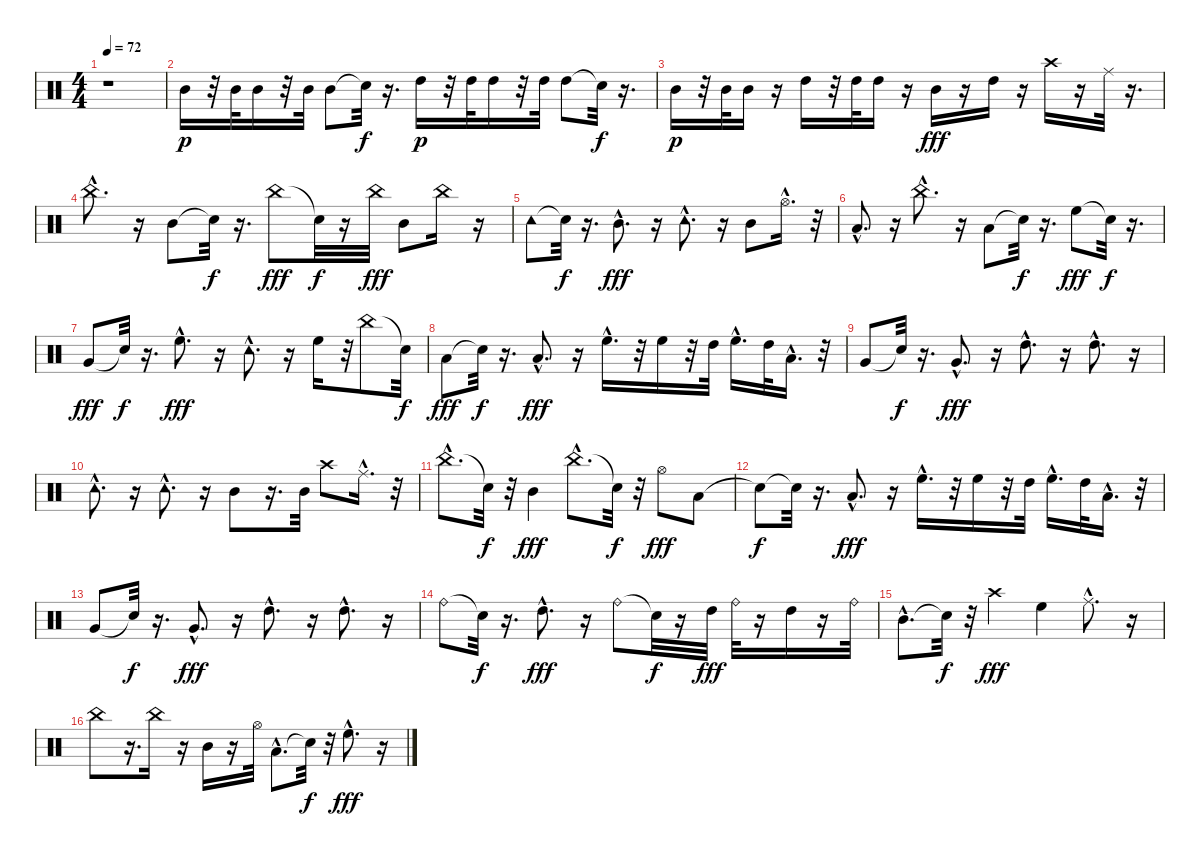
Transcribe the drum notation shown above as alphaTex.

\track "" {instrument percussion}
\staff {score}
\articulation defaults
\ts (4 4)
\tempo 72
\clef neutral
\ks c
r.1{dy p} |
"Mid Tom (hit)".16 r.32 "Mid Tom (hit)".32 "Mid Tom (hit)".16 r.32 "Mid Tom (hit)".32 "Mid Tom (hit)".8 "Snare (hit)"{t}.32{dy f} r.16{d} "High Tom (hit)".16{dy p} r.32 "High Tom (hit)".32 "High Tom (hit)".16 r.32 "High Tom (hit)".32 "High Tom (hit)".8 "Snare (hit)"{t}.32{dy f} r.16{d} |
"Mid Tom (hit)".16{dy p} r.32 "Mid Tom (hit)".32 "Mid Tom (hit)".16 r.16 "High Tom (hit)".16 r.32 "High Tom (hit)".32 "High Tom (hit)".16 r.16 "Mid Tom (hit)".16{dy fff} r.16 "High Tom (hit)".16 r.16 "Crash high (hit)".16 r.16 "Ride (middle)".32 r.16{d} |
"China (hit)"{hac}.8{d} r.16 "Mid Tom (hit)".8 "Snare (hit)"{t}.32{dy f} r.16{d} "China (hit)".8{dy fff} "Snare (hit)"{t}.32{dy f} r.16 "China (hit)".32{dy fff} "Mid Tom (hit)".8 "China (hit)".16 r.16 |
"Tambourine (hit)".8 "Snare (hit)"{t}.32{dy f} r.16{d} "Mid Tom (hit)"{hac}.8{d dy fff} r.16 "Tambourine (hit)"{hac}.8{d} r.16 "Mid Tom (hit)".8 "Hi-Hat (open)"{hac}.16{d} r.32 |
"Low Tom (hit)"{hac}.8{d} r.16 "China (hit)"{hac}.8{d} r.16 "Low Tom (hit)".8 "Snare (hit)"{t}.32{dy f} r.16{d} "High Floor Tom (hit)".8{dy fff} "Snare (hit)"{t}.32{dy f} r.16{d} |
"Very Low Tom (hit)".8{dy fff} "Snare (hit)"{t}.32{dy f} r.16{d} "High Floor Tom (hit)"{hac}.8{d dy fff} r.16 "Tambourine (hit)"{hac}.8{d} r.16 "High Floor Tom (hit)".16 r.32 "China (hit)".8 "Snare (hit)"{t}.32{dy f} |
"Low Tom (hit)".8{dy fff} "Snare (hit)"{t}.32{dy f} r.16{d} "Low Tom (hit)"{hac}.8{d dy fff} r.16 "High Floor Tom (hit)"{hac}.16{d} r.32 "High Floor Tom (hit)".16 r.32 "High Tom (hit)".32 "High Floor Tom (hit)"{hac}.16{d} "High Tom (hit)".32 "Low Tom (hit)"{hac}.16{d} r.32 |
"Very Low Tom (hit)".8 "Snare (hit)"{t}.32{dy f} r.16{d} "Very Low Tom (hit)"{hac}.8{d dy fff} r.16 "High Tom (hit)"{hac}.8{d} r.16 "High Tom (hit)"{hac}.8{d} r.16 |
"Tambourine (hit)"{hac}.8{d} r.16 "Tambourine (hit)"{hac}.8{d} r.16 "Mid Tom (hit)".8 r.16{d} "Mid Tom (hit)".32 "Crash high (hit)".8 "Ride (middle)"{hac}.16{d} r.32 |
"China (hit)"{hac}.8{d} "Snare (hit)"{t}.32{dy f} r.32 "Mid Tom (hit)".4{dy fff} "China (hit)"{hac}.8{d} "Snare (hit)"{t}.32{dy f} r.32 "Hi-Hat (open)".8{dy fff} "Low Tom (hit)".8 |
"Snare (hit)"{t}.8{dy f} "Snare (hit)"{t}.32 r.16{d} "Low Tom (hit)"{hac}.8{d dy fff} r.16 "High Floor Tom (hit)"{hac}.16{d} r.32 "High Floor Tom (hit)".16 r.32 "High Tom (hit)".32 "High Floor Tom (hit)"{hac}.16{d} "High Tom (hit)".32 "Low Tom (hit)"{hac}.16{d} r.32 |
"Very Low Tom (hit)".8 "Snare (hit)"{t}.32{dy f} r.16{d} "Very Low Tom (hit)"{hac}.8{d dy fff} r.16 "High Tom (hit)"{hac}.8{d} r.16 "High Tom (hit)"{hac}.8{d} r.16 |
"Ride (bell)".8 "Snare (hit)"{t}.32{dy f} r.16{d} "High Tom (hit)"{hac}.8{d dy fff} r.16 "Ride (bell)".8 "Snare (hit)"{t}.32{dy f} r.16 "High Tom (hit)".32{dy fff} "Ride (bell)".32 r.16 "High Tom (hit)".16 r.16 "Ride (bell)".32 |
"Mid Tom (hit)"{hac}.8{d} "Snare (hit)"{t}.32{dy f} r.32 "Crash high (hit)".4{dy fff} "High Floor Tom (hit)".4 "Ride (middle)"{hac}.8{d} r.16 |
"China (hit)".8 r.16{d} "China (hit)".16 r.16 "Mid Tom (hit)".16 r.16 "Hi-Hat (open)".32 "Low Tom (hit)"{hac}.8{d} "Snare (hit)"{t}.32{dy f} r.32 "High Floor Tom (hit)"{hac}.8{d dy fff} r.16
